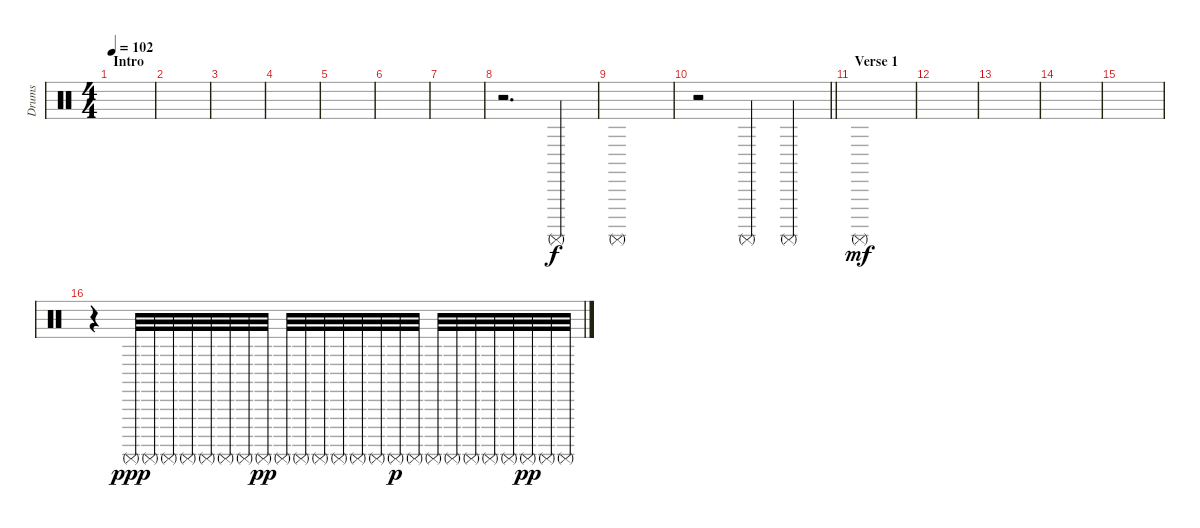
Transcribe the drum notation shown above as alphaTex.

\track ("Drums" "Drums") {instrument percussion}
\staff {score}
\articulation defaults
\ts (4 4)
\section ("" "Intro")
\tempo 102
\clef neutral
\ks c
|
|
|
|
|
|
|
r.2{d} "Surdo (mute)".4 |
"Surdo (mute)".1 |
\barLineRight lightlight
r.2 "Surdo (mute)".4 "Surdo (mute)".4 |
\section ("" "Verse 1")
"Surdo (mute)".1{dy mf} |
|
|
|
|
r.4 "Surdo (mute)".32{dy ppp} "Surdo (mute)".32 "Surdo (mute)".32 "Surdo (mute)".32 "Surdo (mute)".32 "Surdo (mute)".32 "Surdo (mute)".32 "Surdo (mute)".32{dy pp} "Surdo (mute)".32 "Surdo (mute)".32 "Surdo (mute)".32 "Surdo (mute)".32 "Surdo (mute)".32 "Surdo (mute)".32 "Surdo (mute)".32{dy p} "Surdo (mute)".32 "Surdo (mute)".32 "Surdo (mute)".32 "Surdo (mute)".32 "Surdo (mute)".32 "Surdo (mute)".32 "Surdo (mute)".32{dy pp} "Surdo (mute)".32 "Surdo (mute)".32
